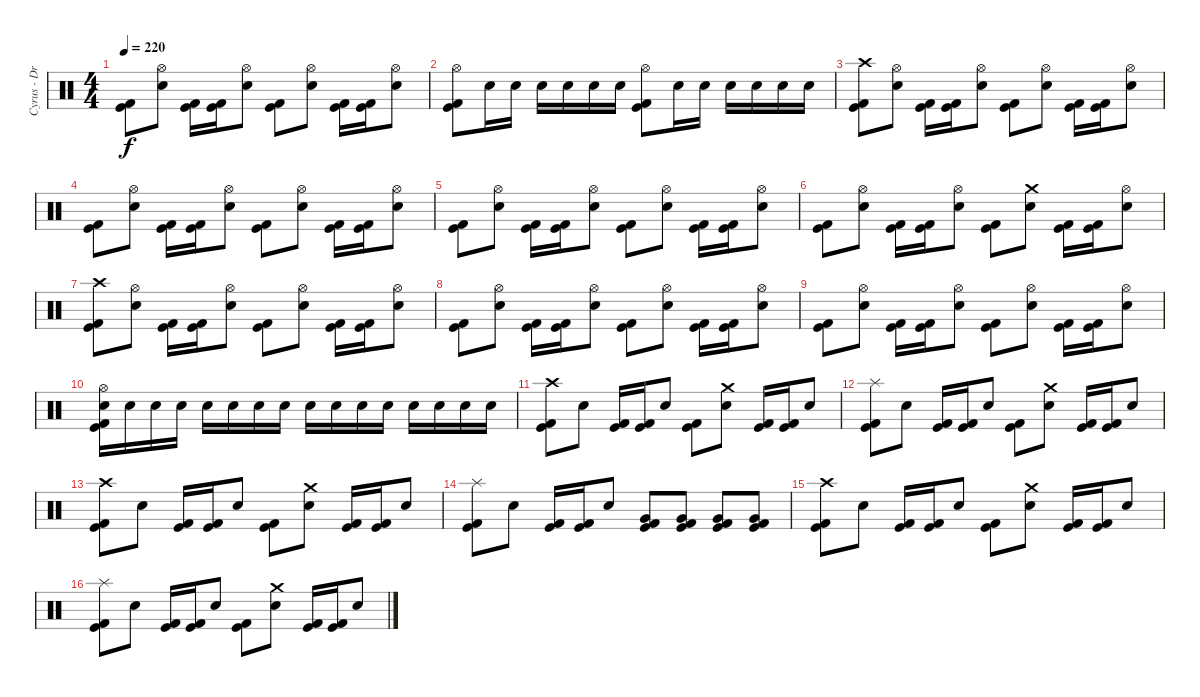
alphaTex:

\track ("Cyrus - Drums" "Cyrus - Dr") {instrument percussion}
\staff {score}
\articulation defaults
\ts (4 4)
\tempo 220
\clef neutral
\ks c
("Kick (hit)" "Kick (hit) 2").8{dy f} ("Electric Snare (hit)" "Hi-Hat (open)").8 ("Kick (hit)" "Kick (hit) 2").16 ("Kick (hit)" "Kick (hit) 2").16 ("Electric Snare (hit)" "Hi-Hat (open)").8 ("Kick (hit)" "Kick (hit) 2").8 ("Electric Snare (hit)" "Hi-Hat (open)").8 ("Kick (hit)" "Kick (hit) 2").16 ("Kick (hit)" "Kick (hit) 2").16 ("Electric Snare (hit)" "Hi-Hat (open)").8 |
("Kick (hit)" "Kick (hit) 2" "Hi-Hat (open)").8 "Electric Snare (hit)".16 "Electric Snare (hit)".16 "Electric Snare (hit)".16 "Electric Snare (hit)".16 "Electric Snare (hit)".16 "Electric Snare (hit)".16 ("Kick (hit)" "Kick (hit) 2" "Hi-Hat (open)").8 "Electric Snare (hit)".16 "Electric Snare (hit)".16 "Electric Snare (hit)".16 "Electric Snare (hit)".16 "Electric Snare (hit)".16 "Electric Snare (hit)".16 |
("Kick (hit)" "Kick (hit) 2" "Crash high (hit)").8 ("Electric Snare (hit)" "Hi-Hat (open)").8 ("Kick (hit)" "Kick (hit) 2").16 ("Kick (hit)" "Kick (hit) 2").16 ("Electric Snare (hit)" "Hi-Hat (open)").8 ("Kick (hit)" "Kick (hit) 2").8 ("Electric Snare (hit)" "Hi-Hat (open)").8 ("Kick (hit)" "Kick (hit) 2").16 ("Kick (hit)" "Kick (hit) 2").16 ("Electric Snare (hit)" "Hi-Hat (open)").8 |
("Kick (hit)" "Kick (hit) 2").8 ("Electric Snare (hit)" "Hi-Hat (open)").8 ("Kick (hit)" "Kick (hit) 2").16 ("Kick (hit)" "Kick (hit) 2").16 ("Electric Snare (hit)" "Hi-Hat (open)").8 ("Kick (hit)" "Kick (hit) 2").8 ("Electric Snare (hit)" "Hi-Hat (open)").8 ("Kick (hit)" "Kick (hit) 2").16 ("Kick (hit)" "Kick (hit) 2").16 ("Electric Snare (hit)" "Hi-Hat (open)").8 |
("Kick (hit)" "Kick (hit) 2").8 ("Electric Snare (hit)" "Hi-Hat (open)").8 ("Kick (hit)" "Kick (hit) 2").16 ("Kick (hit)" "Kick (hit) 2").16 ("Electric Snare (hit)" "Hi-Hat (open)").8 ("Kick (hit)" "Kick (hit) 2").8 ("Electric Snare (hit)" "Hi-Hat (open)").8 ("Kick (hit)" "Kick (hit) 2").16 ("Kick (hit)" "Kick (hit) 2").16 ("Electric Snare (hit)" "Hi-Hat (open)").8 |
("Kick (hit)" "Kick (hit) 2").8 ("Electric Snare (hit)" "Hi-Hat (open)").8 ("Kick (hit)" "Kick (hit) 2").16 ("Kick (hit)" "Kick (hit) 2").16 ("Electric Snare (hit)" "Hi-Hat (open)").8 ("Kick (hit)" "Kick (hit) 2").8 ("Electric Snare (hit)" "Crash medium (hit)").8 ("Kick (hit)" "Kick (hit) 2").16 ("Kick (hit)" "Kick (hit) 2").16 ("Electric Snare (hit)" "Hi-Hat (open)").8 |
("Kick (hit)" "Kick (hit) 2" "Crash high (hit)").8 ("Electric Snare (hit)" "Hi-Hat (open)").8 ("Kick (hit)" "Kick (hit) 2").16 ("Kick (hit)" "Kick (hit) 2").16 ("Electric Snare (hit)" "Hi-Hat (open)").8 ("Kick (hit)" "Kick (hit) 2").8 ("Electric Snare (hit)" "Hi-Hat (open)").8 ("Kick (hit)" "Kick (hit) 2").16 ("Kick (hit)" "Kick (hit) 2").16 ("Electric Snare (hit)" "Hi-Hat (open)").8 |
("Kick (hit)" "Kick (hit) 2").8 ("Electric Snare (hit)" "Hi-Hat (open)").8 ("Kick (hit)" "Kick (hit) 2").16 ("Kick (hit)" "Kick (hit) 2").16 ("Electric Snare (hit)" "Hi-Hat (open)").8 ("Kick (hit)" "Kick (hit) 2").8 ("Electric Snare (hit)" "Hi-Hat (open)").8 ("Kick (hit)" "Kick (hit) 2").16 ("Kick (hit)" "Kick (hit) 2").16 ("Electric Snare (hit)" "Hi-Hat (open)").8 |
("Kick (hit)" "Kick (hit) 2").8 ("Electric Snare (hit)" "Hi-Hat (open)").8 ("Kick (hit)" "Kick (hit) 2").16 ("Kick (hit)" "Kick (hit) 2").16 ("Electric Snare (hit)" "Hi-Hat (open)").8 ("Kick (hit)" "Kick (hit) 2").8 ("Electric Snare (hit)" "Hi-Hat (open)").8 ("Kick (hit)" "Kick (hit) 2").16 ("Kick (hit)" "Kick (hit) 2").16 ("Electric Snare (hit)" "Hi-Hat (open)").8 |
("Kick (hit)" "Kick (hit) 2" "Electric Snare (hit)" "Hi-Hat (open)").16 "Electric Snare (hit)".16 "Electric Snare (hit)".16 "Electric Snare (hit)".16 "Electric Snare (hit)".16 "Electric Snare (hit)".16 "Electric Snare (hit)".16 "Electric Snare (hit)".16 "Electric Snare (hit)".16 "Electric Snare (hit)".16 "Electric Snare (hit)".16 "Electric Snare (hit)".16 "Electric Snare (hit)".16 "Electric Snare (hit)".16 "Electric Snare (hit)".16 "Electric Snare (hit)".16 |
("Kick (hit)" "Kick (hit) 2" "Crash high (hit)").8 "Electric Snare (hit)".8 ("Kick (hit)" "Kick (hit) 2").16 ("Kick (hit)" "Kick (hit) 2").16 "Electric Snare (hit)".8 ("Kick (hit)" "Kick (hit) 2").8 ("Electric Snare (hit)" "Crash medium (hit)").8 ("Kick (hit)" "Kick (hit) 2").16 ("Kick (hit)" "Kick (hit) 2").16 "Electric Snare (hit)".8 |
("Kick (hit)" "Kick (hit) 2" "Splash (hit)").8 "Electric Snare (hit)".8 ("Kick (hit)" "Kick (hit) 2").16 ("Kick (hit)" "Kick (hit) 2").16 "Electric Snare (hit)".8 ("Kick (hit)" "Kick (hit) 2").8 ("Electric Snare (hit)" "Crash medium (hit)").8 ("Kick (hit)" "Kick (hit) 2").16 ("Kick (hit)" "Kick (hit) 2").16 "Electric Snare (hit)".8 |
("Kick (hit)" "Kick (hit) 2" "Crash high (hit)").8 "Electric Snare (hit)".8 ("Kick (hit)" "Kick (hit) 2").16 ("Kick (hit)" "Kick (hit) 2").16 "Electric Snare (hit)".8 ("Kick (hit)" "Kick (hit) 2").8 ("Electric Snare (hit)" "Crash medium (hit)").8 ("Kick (hit)" "Kick (hit) 2").16 ("Kick (hit)" "Kick (hit) 2").16 "Electric Snare (hit)".8 |
("Kick (hit)" "Kick (hit) 2" "Splash (hit)").8 "Electric Snare (hit)".8 ("Kick (hit)" "Kick (hit) 2").16 ("Kick (hit)" "Kick (hit) 2").16 "Electric Snare (hit)".8 ("Kick (hit)" "Kick (hit) 2" "Very Low Tom (hit)").8 ("Kick (hit)" "Kick (hit) 2" "Very Low Tom (hit)").8 ("Kick (hit)" "Kick (hit) 2" "Very Low Tom (hit)").8 ("Kick (hit)" "Kick (hit) 2" "Very Low Tom (hit)").8 |
("Kick (hit)" "Kick (hit) 2" "Crash high (hit)").8 "Electric Snare (hit)".8 ("Kick (hit)" "Kick (hit) 2").16 ("Kick (hit)" "Kick (hit) 2").16 "Electric Snare (hit)".8 ("Kick (hit)" "Kick (hit) 2").8 ("Electric Snare (hit)" "Crash medium (hit)").8 ("Kick (hit)" "Kick (hit) 2").16 ("Kick (hit)" "Kick (hit) 2").16 "Electric Snare (hit)".8 |
("Kick (hit)" "Kick (hit) 2" "Splash (hit)").8 "Electric Snare (hit)".8 ("Kick (hit)" "Kick (hit) 2").16 ("Kick (hit)" "Kick (hit) 2").16 "Electric Snare (hit)".8 ("Kick (hit)" "Kick (hit) 2").8 ("Electric Snare (hit)" "Crash medium (hit)").8 ("Kick (hit)" "Kick (hit) 2").16 ("Kick (hit)" "Kick (hit) 2").16 "Electric Snare (hit)".8
